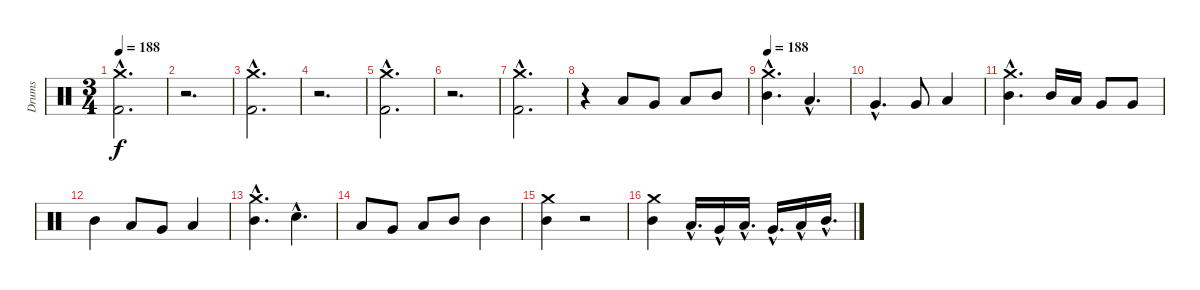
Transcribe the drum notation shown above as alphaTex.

\track ("Drums" "Drums") {instrument percussion}
\staff {score}
\articulation defaults
\ts (3 4)
\tempo 188
\clef neutral
\ks c
("Crash medium (hit)"{hac} "Kick (hit) 2"{hac}).2{d dy f} |
r.2{d} |
("Crash medium (hit)"{hac} "Kick (hit) 2"{hac}).2{d} |
r.2{d} |
("Crash medium (hit)"{hac} "Kick (hit) 2"{hac}).2{d} |
r.2{d} |
("Crash medium (hit)"{hac} "Kick (hit) 2"{hac}).2{d} |
r.4 "Low Floor Tom (hit)".8 "Very Low Tom (hit)".8 "Low Tom (hit)".8 "Mid Tom (hit)".8 |
\tempo 188
("Crash medium (hit)"{hac} "Mid Tom (hit)"{hac}).4{d} "Low Tom (hit)"{hac}.4{d} |
"Very Low Tom (hit)"{hac}.4{d} "Very Low Tom (hit)".8 "Low Floor Tom (hit)".4 |
("Crash medium (hit)"{hac} "Mid Tom (hit)"{hac}).4{d} "Mid Tom (hit)".16 "Low Tom (hit)".16 "Very Low Tom (hit)".8 "Very Low Tom (hit)".8 |
"Mid Tom (hit)".4 "Low Tom (hit)".8 "Very Low Tom (hit)".8 "Low Floor Tom (hit)".4 |
("Crash medium (hit)"{hac} "Mid Tom (hit)"{hac}).4{d} "Electric Snare (hit)"{hac}.4{d} |
"Low Floor Tom (hit)".8 "Very Low Tom (hit)".8 "Low Tom (hit)".8 "Mid Tom (hit)".8 "Mid Tom (hit)".4 |
("Crash medium (hit)" "Mid Tom (hit)").4 r.2 |
("Crash medium (hit)" "Mid Tom (hit)").4 "Low Floor Tom (hit)"{hac}.16{d} "Very Low Tom (hit)"{hac}.16 "Low Tom (hit)"{hac}.16{d} "Very Low Tom (hit)"{hac}.16{d} "Low Tom (hit)"{hac}.16 "Mid Tom (hit)"{hac}.16{d}
